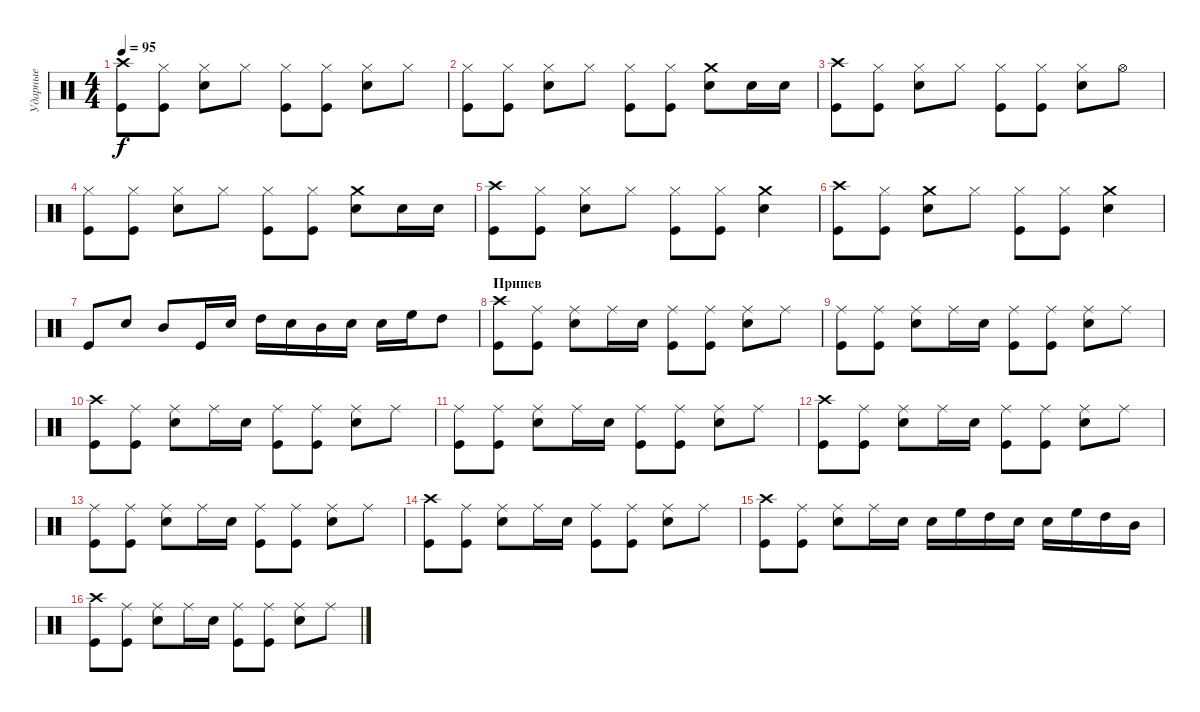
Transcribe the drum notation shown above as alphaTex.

\track ("Ударные" "Ударные") {instrument percussion}
\staff {score}
\articulation defaults
\ts (4 4)
\tempo 95
\clef neutral
\ks c
("Crash high (hit)" "Kick (hit)").8{dy f} ("Hi-Hat (closed)" "Kick (hit)").8 ("Hi-Hat (closed)" "Snare (hit) 2").8 "Hi-Hat (closed)".8 ("Hi-Hat (closed)" "Kick (hit)").8 ("Hi-Hat (closed)" "Kick (hit)").8 ("Hi-Hat (closed)" "Snare (hit) 2").8 "Hi-Hat (closed)".8 |
("Hi-Hat (closed)" "Kick (hit)").8 ("Hi-Hat (closed)" "Kick (hit)").8 ("Hi-Hat (closed)" "Snare (hit) 2").8 "Hi-Hat (closed)".8 ("Hi-Hat (closed)" "Kick (hit)").8 ("Hi-Hat (closed)" "Kick (hit)").8 ("Crash medium (hit)" "Snare (hit) 2").8 "Snare (hit) 2".16 "Snare (hit) 2".16 |
("Crash high (hit)" "Kick (hit)").8 ("Hi-Hat (closed)" "Kick (hit)").8 ("Hi-Hat (closed)" "Snare (hit) 2").8 "Hi-Hat (closed)".8 ("Hi-Hat (closed)" "Kick (hit)").8 ("Hi-Hat (closed)" "Kick (hit)").8 ("Hi-Hat (closed)" "Snare (hit) 2").8 "Hi-Hat (open)".8 |
("Hi-Hat (closed)" "Kick (hit)").8 ("Hi-Hat (closed)" "Kick (hit)").8 ("Hi-Hat (closed)" "Snare (hit) 2").8 "Hi-Hat (closed)".8 ("Hi-Hat (closed)" "Kick (hit)").8 ("Hi-Hat (closed)" "Kick (hit)").8 ("Crash medium (hit)" "Snare (hit) 2").8 "Snare (hit) 2".16 "Snare (hit) 2".16 |
("Crash high (hit)" "Kick (hit)").8 ("Hi-Hat (closed)" "Kick (hit)").8 ("Hi-Hat (closed)" "Snare (hit) 2").8 "Hi-Hat (closed)".8 ("Hi-Hat (closed)" "Kick (hit)").8 ("Hi-Hat (closed)" "Kick (hit)").8 ("Crash medium (hit)" "Snare (hit) 2").4 |
("Crash high (hit)" "Kick (hit)").8 ("Hi-Hat (closed)" "Kick (hit)").8 ("Crash medium (hit)" "Snare (hit) 2").8 "Hi-Hat (closed)".8 ("Hi-Hat (closed)" "Kick (hit)").8 ("Hi-Hat (closed)" "Kick (hit)").8 ("Crash medium (hit)" "Snare (hit) 2").4 |
"Kick (hit)".8 "Snare (hit) 2".8 "Mid Tom (hit)".8 "Kick (hit)".16 "Snare (hit) 2".16 "High Tom (hit)".16 "Snare (hit) 2".16 "Mid Tom (hit)".16 "Snare (hit) 2".16 "Snare (hit) 2".16 "High Floor Tom (hit)".16 "High Tom (hit)".8 |
\section ("" "Припев")
("Crash high (hit)" "Kick (hit)").8 ("Ride (middle)" "Kick (hit)").8 ("Ride (middle)" "Snare (hit) 2").8 "Ride (middle)".16 "Snare (hit) 2".16 ("Ride (middle)" "Kick (hit)").8 ("Ride (middle)" "Kick (hit)").8 ("Ride (middle)" "Snare (hit) 2").8 "Ride (middle)".8 |
("Ride (middle)" "Kick (hit)").8 ("Ride (middle)" "Kick (hit)").8 ("Ride (middle)" "Snare (hit) 2").8 "Ride (middle)".16 "Snare (hit) 2".16 ("Ride (middle)" "Kick (hit)").8 ("Ride (middle)" "Kick (hit)").8 ("Ride (middle)" "Snare (hit) 2").8 "Ride (middle)".8 |
("Crash high (hit)" "Kick (hit)").8 ("Ride (middle)" "Kick (hit)").8 ("Ride (middle)" "Snare (hit) 2").8 "Ride (middle)".16 "Snare (hit) 2".16 ("Ride (middle)" "Kick (hit)").8 ("Ride (middle)" "Kick (hit)").8 ("Ride (middle)" "Snare (hit) 2").8 "Ride (middle)".8 |
("Ride (middle)" "Kick (hit)").8 ("Ride (middle)" "Kick (hit)").8 ("Ride (middle)" "Snare (hit) 2").8 "Ride (middle)".16 "Snare (hit) 2".16 ("Ride (middle)" "Kick (hit)").8 ("Ride (middle)" "Kick (hit)").8 ("Ride (middle)" "Snare (hit) 2").8 "Ride (middle)".8 |
("Crash high (hit)" "Kick (hit)").8 ("Ride (middle)" "Kick (hit)").8 ("Ride (middle)" "Snare (hit) 2").8 "Ride (middle)".16 "Snare (hit) 2".16 ("Ride (middle)" "Kick (hit)").8 ("Ride (middle)" "Kick (hit)").8 ("Ride (middle)" "Snare (hit) 2").8 "Ride (middle)".8 |
("Ride (middle)" "Kick (hit)").8 ("Ride (middle)" "Kick (hit)").8 ("Ride (middle)" "Snare (hit) 2").8 "Ride (middle)".16 "Snare (hit) 2".16 ("Ride (middle)" "Kick (hit)").8 ("Ride (middle)" "Kick (hit)").8 ("Ride (middle)" "Snare (hit) 2").8 "Ride (middle)".8 |
("Crash high (hit)" "Kick (hit)").8 ("Ride (middle)" "Kick (hit)").8 ("Ride (middle)" "Snare (hit) 2").8 "Ride (middle)".16 "Snare (hit) 2".16 ("Ride (middle)" "Kick (hit)").8 ("Ride (middle)" "Kick (hit)").8 ("Ride (middle)" "Snare (hit) 2").8 "Ride (middle)".8 |
("Crash high (hit)" "Kick (hit)").8 ("Ride (middle)" "Kick (hit)").8 ("Ride (middle)" "Snare (hit) 2").8 "Ride (middle)".16 "Snare (hit) 2".16 "Snare (hit) 2".16 "High Floor Tom (hit)".16 "High Tom (hit)".16 "Snare (hit) 2".16 "Snare (hit) 2".16 "High Floor Tom (hit)".16 "High Tom (hit)".16 "Mid Tom (hit)".16 |
("Crash high (hit)" "Kick (hit)").8 ("Ride (middle)" "Kick (hit)").8 ("Ride (middle)" "Snare (hit) 2").8 "Ride (middle)".16 "Snare (hit) 2".16 ("Ride (middle)" "Kick (hit)").8 ("Ride (middle)" "Kick (hit)").8 ("Ride (middle)" "Snare (hit) 2").8 "Ride (middle)".8
